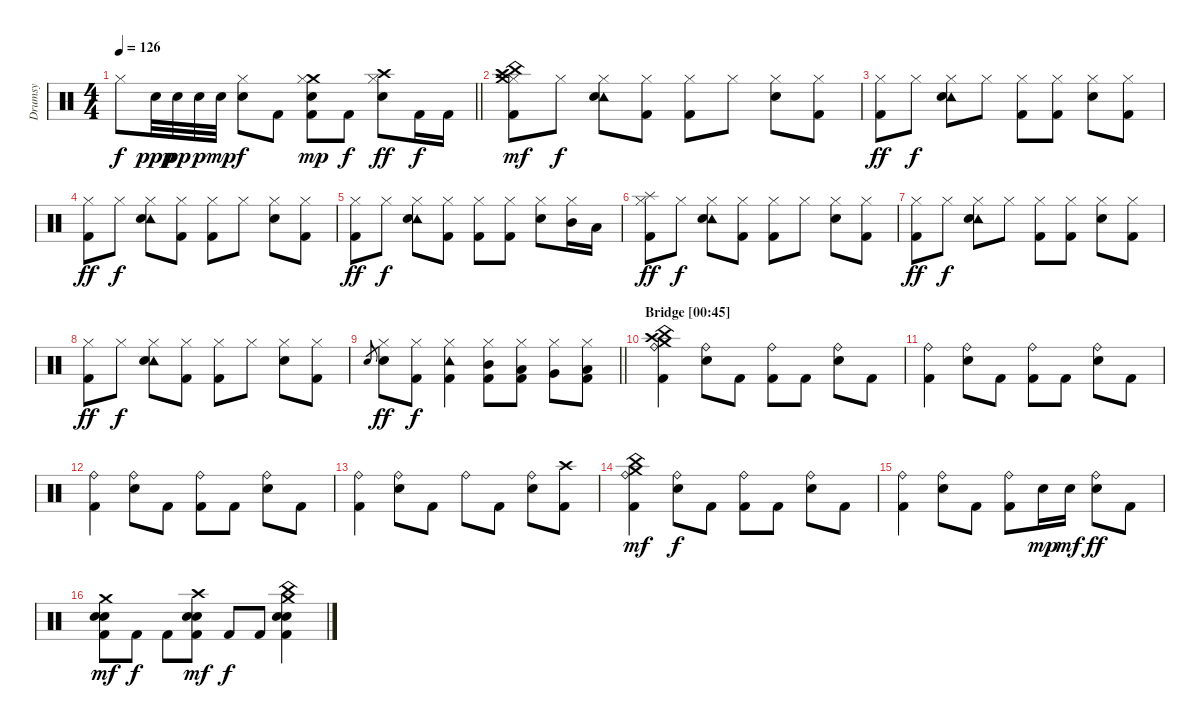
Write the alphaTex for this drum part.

\track ("Drumsy" "Drumsy") {instrument percussion}
\staff {score}
\articulation defaults
\ts (4 4)
\tempo 126
\clef neutral
\barLineRight lightlight
\ks c "Hi-Hat (closed)".8{dy f} "Snare (hit) 2".32{dy ppp} "Snare (hit) 2".32{dy pp} "Snare (hit) 2".32{dy p} "Snare (hit) 2".32{dy mp}
("Hi-Hat (closed)" "Electric Snare (hit)").8{dy f} "Kick (hit) 2".8 ("Crash medium (hit)" "Hi-Hat (closed)" "Snare (hit) 2" "Kick (hit) 2").8{dy mp} "Kick (hit) 2".8{dy f} ("Crash high (hit)" "Hi-Hat (closed)" "Electric Snare (hit)").8{dy ff} "Kick (hit) 2".16{dy f} "Kick (hit) 2".16 |
\section ("" "")
("Hi-Hat (closed)" "Crash medium (hit)" "Crash high (hit)" "China (hit)" "Kick (hit) 2").8{dy mf} "Hi-Hat (closed)".8{dy f} ("Hi-Hat (closed)" "Tambourine (hit)" "Electric Snare (hit)").8 ("Hi-Hat (closed)" "Kick (hit) 2").8 ("Hi-Hat (closed)" "Kick (hit) 2").8 "Hi-Hat (closed)".8 ("Hi-Hat (closed)" "Electric Snare (hit)").8 ("Hi-Hat (closed)" "Kick (hit) 2").8 |
("Hi-Hat (closed)" "Kick (hit) 2").8{dy ff} "Hi-Hat (closed)".8{dy f} ("Hi-Hat (closed)" "Tambourine (hit)" "Electric Snare (hit)").8 "Hi-Hat (closed)".8 ("Hi-Hat (closed)" "Kick (hit) 2").8 ("Hi-Hat (closed)" "Kick (hit) 2").8 ("Hi-Hat (closed)" "Electric Snare (hit)").8 ("Hi-Hat (closed)" "Kick (hit) 2").8 |
("Hi-Hat (closed)" "Kick (hit) 2").8{dy ff} "Hi-Hat (closed)".8{dy f} ("Hi-Hat (closed)" "Tambourine (hit)" "Electric Snare (hit)").8 ("Hi-Hat (closed)" "Kick (hit) 2").8 ("Hi-Hat (closed)" "Kick (hit) 2").8 "Hi-Hat (closed)".8 ("Hi-Hat (closed)" "Electric Snare (hit)").8 ("Hi-Hat (closed)" "Kick (hit) 2").8 |
("Hi-Hat (closed)" "Kick (hit) 2").8{dy ff} "Hi-Hat (closed)".8{dy f} ("Hi-Hat (closed)" "Tambourine (hit)" "Electric Snare (hit)").8 ("Hi-Hat (closed)" "Kick (hit) 2").8 ("Hi-Hat (closed)" "Kick (hit) 2").8 ("Hi-Hat (closed)" "Kick (hit) 2").8 ("Hi-Hat (closed)" "Electric Snare (hit)").8 ("Hi-Hat (closed)" "Mid Tom (hit)").16 "Low Tom (hit)".16 |
("Hi-Hat (closed)" "Splash (hit)" "Kick (hit) 2").8{dy ff} "Hi-Hat (closed)".8{dy f} ("Hi-Hat (closed)" "Tambourine (hit)" "Electric Snare (hit)").8 ("Hi-Hat (closed)" "Kick (hit) 2").8 ("Hi-Hat (closed)" "Kick (hit) 2").8 "Hi-Hat (closed)".8 ("Hi-Hat (closed)" "Electric Snare (hit)").8 ("Hi-Hat (closed)" "Kick (hit) 2").8 |
("Hi-Hat (closed)" "Kick (hit) 2").8{dy ff} "Hi-Hat (closed)".8{dy f} ("Hi-Hat (closed)" "Tambourine (hit)" "Electric Snare (hit)").8 "Hi-Hat (closed)".8 ("Hi-Hat (closed)" "Kick (hit) 2").8 ("Hi-Hat (closed)" "Kick (hit) 2").8 ("Hi-Hat (closed)" "Electric Snare (hit)").8 ("Hi-Hat (closed)" "Kick (hit) 2").8 |
("Hi-Hat (closed)" "Kick (hit) 2").8{dy ff} "Hi-Hat (closed)".8{dy f} ("Hi-Hat (closed)" "Tambourine (hit)" "Electric Snare (hit)").8 ("Hi-Hat (closed)" "Kick (hit) 2").8 ("Hi-Hat (closed)" "Kick (hit) 2").8 "Hi-Hat (closed)".8 ("Hi-Hat (closed)" "Electric Snare (hit)").8 ("Hi-Hat (closed)" "Kick (hit) 2").8 |
\barLineRight lightlight "Snare (hit) 2".8{gr}
("Hi-Hat (closed)" "Electric Snare (hit)").8{dy ff} ("Hi-Hat (closed)" "Kick (hit) 2").8{dy f} ("Hi-Hat (closed)" "Tambourine (hit)" "Kick (hit) 2").4 ("Hi-Hat (closed)" "Mid Tom (hit)" "Kick (hit) 2").8 ("Hi-Hat (closed)" "Low Tom (hit)" "Kick (hit) 2").8 ("Hi-Hat (closed)" "Very Low Tom (hit)").8 ("Hi-Hat (closed)" "Low Floor Tom (hit)" "Kick (hit) 2").8 |
\section ("" "Bridge [00:45]")
("Ride (bell)" "Crash medium (hit)" "China (hit)" "Crash high (hit)" "Kick (hit) 2").4 ("Ride (bell)" "Electric Snare (hit)").8 "Kick (hit) 2".8 ("Ride (bell)" "Kick (hit) 2").8 "Kick (hit) 2".8 ("Ride (bell)" "Electric Snare (hit)").8 "Kick (hit) 2".8 |
("Ride (bell)" "Kick (hit) 2").4 ("Ride (bell)" "Electric Snare (hit)").8 "Kick (hit) 2".8 ("Ride (bell)" "Kick (hit) 2").8 "Kick (hit) 2".8 ("Ride (bell)" "Electric Snare (hit)").8 "Kick (hit) 2".8 |
("Ride (bell)" "Kick (hit) 2").4 ("Ride (bell)" "Electric Snare (hit)").8 "Kick (hit) 2".8 ("Ride (bell)" "Kick (hit) 2").8 "Kick (hit) 2".8 ("Ride (bell)" "Electric Snare (hit)").8 "Kick (hit) 2".8 |
("Ride (bell)" "Kick (hit) 2").4 ("Ride (bell)" "Electric Snare (hit)").8 "Kick (hit) 2".8 "Ride (bell)".8 "Kick (hit) 2".8 ("Ride (bell)" "Electric Snare (hit)").8 ("Crash high (hit)" "Kick (hit) 2").8 |
("Ride (bell)" "Crash medium (hit)" "China (hit)" "Kick (hit) 2").4{dy mf} ("Ride (bell)" "Electric Snare (hit)").8{dy f} "Kick (hit) 2".8 ("Ride (bell)" "Kick (hit) 2").8 "Kick (hit) 2".8 ("Ride (bell)" "Electric Snare (hit)").8 "Kick (hit) 2".8 |
("Ride (bell)" "Kick (hit) 2").4 ("Ride (bell)" "Electric Snare (hit)").8 "Kick (hit) 2".8 ("Ride (bell)" "Kick (hit) 2").8 "Snare (hit) 2".16{dy mp} "Snare (hit) 2".16{dy mf} ("Ride (bell)" "Electric Snare (hit)").8{dy ff} "Kick (hit) 2".8 |
("Crash medium (hit)" "Snare (hit) 2" "Electric Snare (hit)" "Kick (hit) 2").8{dy mf} "Kick (hit) 2".8{dy f} "Kick (hit) 2".8 ("Crash high (hit)" "Snare (hit) 2" "Electric Snare (hit)" "Kick (hit) 2").8{dy mf} "Kick (hit) 2".8{dy f} "Kick (hit) 2".8 ("Crash medium (hit)" "China (hit)" "Snare (hit) 2" "Electric Snare (hit)" "Kick (hit) 2").4
